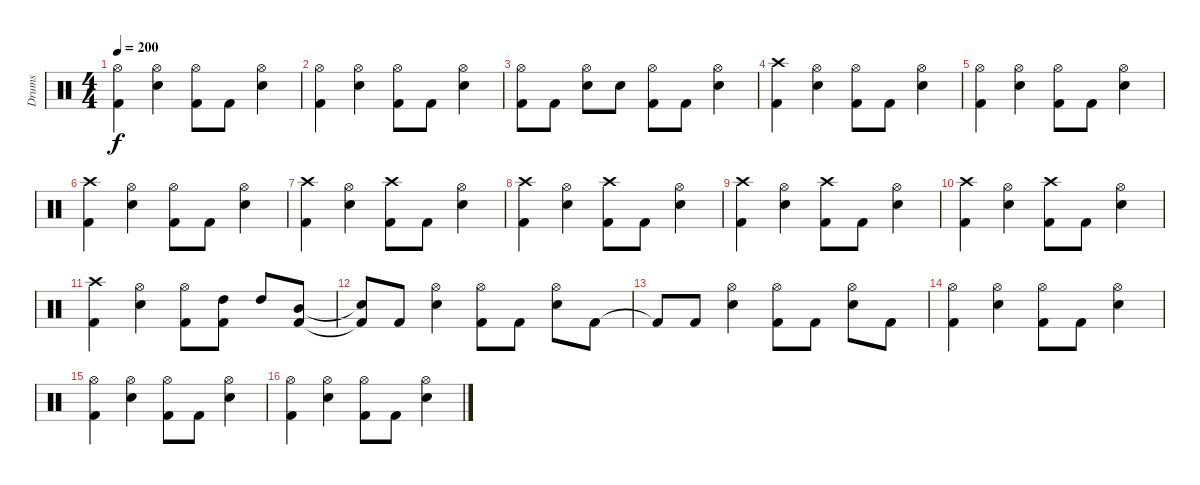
\track ("Drums" "Drums") {instrument percussion}
\staff {score}
\articulation defaults
\ts (4 4)
\tempo 200
\clef neutral
\ks c
("Hi-Hat (open)" "Kick (hit) 2").4{dy f} ("Hi-Hat (open)" "Electric Snare (hit)").4 ("Hi-Hat (open)" "Kick (hit) 2").8 "Kick (hit) 2".8 ("Hi-Hat (open)" "Electric Snare (hit)").4 |
("Hi-Hat (open)" "Kick (hit) 2").4 ("Hi-Hat (open)" "Electric Snare (hit)").4 ("Hi-Hat (open)" "Kick (hit) 2").8 "Kick (hit) 2".8 ("Hi-Hat (open)" "Electric Snare (hit)").4 |
("Hi-Hat (open)" "Kick (hit) 2").8 "Kick (hit) 2".8 ("Hi-Hat (open)" "Electric Snare (hit)").8 "Electric Snare (hit)".8 ("Hi-Hat (open)" "Kick (hit) 2").8 "Kick (hit) 2".8 ("Hi-Hat (open)" "Electric Snare (hit)").4 |
("Crash high (hit)" "Kick (hit) 2").4 ("Hi-Hat (open)" "Electric Snare (hit)").4 ("Hi-Hat (open)" "Kick (hit) 2").8 "Kick (hit) 2".8 ("Hi-Hat (open)" "Electric Snare (hit)").4 |
("Hi-Hat (open)" "Kick (hit) 2").4 ("Hi-Hat (open)" "Electric Snare (hit)").4 ("Hi-Hat (open)" "Kick (hit) 2").8 "Kick (hit) 2".8 ("Hi-Hat (open)" "Electric Snare (hit)").4 |
("Crash high (hit)" "Kick (hit) 2").4 ("Hi-Hat (open)" "Electric Snare (hit)").4 ("Hi-Hat (open)" "Kick (hit) 2").8 "Kick (hit) 2".8 ("Hi-Hat (open)" "Electric Snare (hit)").4 |
("Crash high (hit)" "Kick (hit) 2").4 ("Hi-Hat (open)" "Electric Snare (hit)").4 ("Crash high (hit)" "Kick (hit) 2").8 "Kick (hit) 2".8 ("Hi-Hat (open)" "Electric Snare (hit)").4 |
("Crash high (hit)" "Kick (hit) 2").4 ("Hi-Hat (open)" "Electric Snare (hit)").4 ("Crash high (hit)" "Kick (hit) 2").8 "Kick (hit) 2".8 ("Hi-Hat (open)" "Electric Snare (hit)").4 |
("Crash high (hit)" "Kick (hit) 2").4 ("Hi-Hat (open)" "Electric Snare (hit)").4 ("Crash high (hit)" "Kick (hit) 2").8 "Kick (hit) 2".8 ("Hi-Hat (open)" "Electric Snare (hit)").4 |
("Crash high (hit)" "Kick (hit) 2").4 ("Hi-Hat (open)" "Electric Snare (hit)").4 ("Crash high (hit)" "Kick (hit) 2").8 "Kick (hit) 2".8 ("Hi-Hat (open)" "Electric Snare (hit)").4 |
("Crash high (hit)" "Kick (hit) 2").4 ("Hi-Hat (open)" "Electric Snare (hit)").4 ("Hi-Hat (open)" "Kick (hit) 2").8 ("High Tom (hit)" "Kick (hit) 2").8 "High Tom (hit)".8 ("Mid Tom (hit)" "Kick (hit) 2").8 |
("Snare (hit)"{t} "Kick (hit) 2"{t}).8 "Kick (hit) 2".8 ("Hi-Hat (open)" "Electric Snare (hit)").4 ("Hi-Hat (open)" "Kick (hit) 2").8 "Kick (hit) 2".8 ("Hi-Hat (open)" "Electric Snare (hit)").8 "Kick (hit) 2".8 |
"Kick (hit) 2"{t}.8 "Kick (hit) 2".8 ("Hi-Hat (open)" "Electric Snare (hit)").4 ("Hi-Hat (open)" "Kick (hit) 2").8 "Kick (hit) 2".8 ("Hi-Hat (open)" "Electric Snare (hit)").8 "Kick (hit) 2".8 |
("Hi-Hat (open)" "Kick (hit) 2").4 ("Hi-Hat (open)" "Electric Snare (hit)").4 ("Hi-Hat (open)" "Kick (hit) 2").8 "Kick (hit) 2".8 ("Hi-Hat (open)" "Electric Snare (hit)").4 |
("Hi-Hat (open)" "Kick (hit) 2").4 ("Hi-Hat (open)" "Electric Snare (hit)").4 ("Hi-Hat (open)" "Kick (hit) 2").8 "Kick (hit) 2".8 ("Hi-Hat (open)" "Electric Snare (hit)").4 |
("Hi-Hat (open)" "Kick (hit) 2").4 ("Hi-Hat (open)" "Electric Snare (hit)").4 ("Hi-Hat (open)" "Kick (hit) 2").8 "Kick (hit) 2".8 ("Hi-Hat (open)" "Electric Snare (hit)").4
